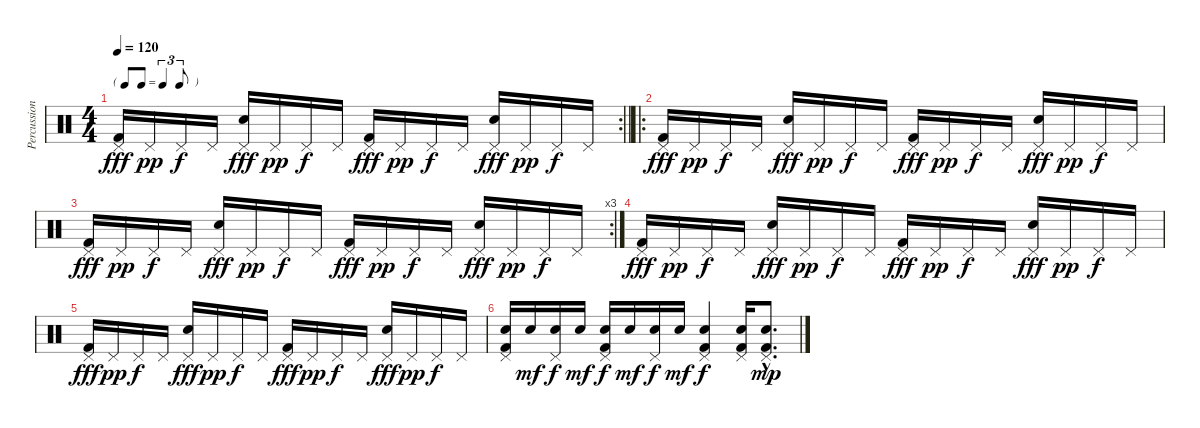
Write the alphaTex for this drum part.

\track ("Percussions" "Percussion") {instrument percussion}
\staff {score}
\articulation defaults
\rc 2
\ts (4 4)
\tf triplet8th
\tempo 120
\clef neutral
\barLineRight lightlight
\ks c
("Pedal Hi-Hat (hit)" "Kick (hit) 2").16{dy fff} "Pedal Hi-Hat (hit)".16{dy pp} "Pedal Hi-Hat (hit)".16{dy f} "Pedal Hi-Hat (hit)".16 ("Pedal Hi-Hat (hit)" "Hand Clap (hit)").16{dy fff} "Pedal Hi-Hat (hit)".16{dy pp} "Pedal Hi-Hat (hit)".16{dy f} "Pedal Hi-Hat (hit)".16 ("Pedal Hi-Hat (hit)" "Kick (hit) 2").16{dy fff} "Pedal Hi-Hat (hit)".16{dy pp} "Pedal Hi-Hat (hit)".16{dy f} "Pedal Hi-Hat (hit)".16 ("Pedal Hi-Hat (hit)" "Hand Clap (hit)").16{dy fff} "Pedal Hi-Hat (hit)".16{dy pp} "Pedal Hi-Hat (hit)".16{dy f} "Pedal Hi-Hat (hit)".16 |
\ro
("Pedal Hi-Hat (hit)" "Kick (hit) 2").16{dy fff} "Pedal Hi-Hat (hit)".16{dy pp} "Pedal Hi-Hat (hit)".16{dy f} "Pedal Hi-Hat (hit)".16 ("Pedal Hi-Hat (hit)" "Hand Clap (hit)").16{dy fff} "Pedal Hi-Hat (hit)".16{dy pp} "Pedal Hi-Hat (hit)".16{dy f} "Pedal Hi-Hat (hit)".16 ("Pedal Hi-Hat (hit)" "Kick (hit) 2").16{dy fff} "Pedal Hi-Hat (hit)".16{dy pp} "Pedal Hi-Hat (hit)".16{dy f} "Pedal Hi-Hat (hit)".16 ("Pedal Hi-Hat (hit)" "Hand Clap (hit)").16{dy fff} "Pedal Hi-Hat (hit)".16{dy pp} "Pedal Hi-Hat (hit)".16{dy f} "Pedal Hi-Hat (hit)".16 |
\rc 3
("Pedal Hi-Hat (hit)" "Kick (hit) 2").16{dy fff} "Pedal Hi-Hat (hit)".16{dy pp} "Pedal Hi-Hat (hit)".16{dy f} "Pedal Hi-Hat (hit)".16 ("Pedal Hi-Hat (hit)" "Hand Clap (hit)").16{dy fff} "Pedal Hi-Hat (hit)".16{dy pp} "Pedal Hi-Hat (hit)".16{dy f} "Pedal Hi-Hat (hit)".16 ("Pedal Hi-Hat (hit)" "Kick (hit) 2").16{dy fff} "Pedal Hi-Hat (hit)".16{dy pp} "Pedal Hi-Hat (hit)".16{dy f} "Pedal Hi-Hat (hit)".16 ("Pedal Hi-Hat (hit)" "Hand Clap (hit)").16{dy fff} "Pedal Hi-Hat (hit)".16{dy pp} "Pedal Hi-Hat (hit)".16{dy f} "Pedal Hi-Hat (hit)".16 |
("Pedal Hi-Hat (hit)" "Kick (hit) 2").16{dy fff} "Pedal Hi-Hat (hit)".16{dy pp} "Pedal Hi-Hat (hit)".16{dy f} "Pedal Hi-Hat (hit)".16 ("Pedal Hi-Hat (hit)" "Hand Clap (hit)").16{dy fff} "Pedal Hi-Hat (hit)".16{dy pp} "Pedal Hi-Hat (hit)".16{dy f} "Pedal Hi-Hat (hit)".16 ("Pedal Hi-Hat (hit)" "Kick (hit) 2").16{dy fff} "Pedal Hi-Hat (hit)".16{dy pp} "Pedal Hi-Hat (hit)".16{dy f} "Pedal Hi-Hat (hit)".16 ("Pedal Hi-Hat (hit)" "Hand Clap (hit)").16{dy fff} "Pedal Hi-Hat (hit)".16{dy pp} "Pedal Hi-Hat (hit)".16{dy f} "Pedal Hi-Hat (hit)".16 |
("Pedal Hi-Hat (hit)" "Kick (hit) 2").16{dy fff} "Pedal Hi-Hat (hit)".16{dy pp} "Pedal Hi-Hat (hit)".16{dy f} "Pedal Hi-Hat (hit)".16 ("Pedal Hi-Hat (hit)" "Hand Clap (hit)").16{dy fff} "Pedal Hi-Hat (hit)".16{dy pp} "Pedal Hi-Hat (hit)".16{dy f} "Pedal Hi-Hat (hit)".16 ("Pedal Hi-Hat (hit)" "Kick (hit) 2").16{dy fff} "Pedal Hi-Hat (hit)".16{dy pp} "Pedal Hi-Hat (hit)".16{dy f} "Pedal Hi-Hat (hit)".16 ("Pedal Hi-Hat (hit)" "Hand Clap (hit)").16{dy fff} "Pedal Hi-Hat (hit)".16{dy pp} "Pedal Hi-Hat (hit)".16{dy f} "Pedal Hi-Hat (hit)".16 |
("Snare (hit) 2" "Pedal Hi-Hat (hit)" "Kick (hit) 2").16 "Snare (hit) 2".16{dy mf} ("Snare (hit) 2" "Pedal Hi-Hat (hit)").16{dy f} "Snare (hit) 2".16{dy mf} ("Snare (hit) 2" "Pedal Hi-Hat (hit)" "Kick (hit) 2").16{dy f} "Snare (hit) 2".16{dy mf} ("Snare (hit) 2" "Pedal Hi-Hat (hit)").16{dy f} "Snare (hit) 2".16{dy mf} ("Snare (hit) 2" "Pedal Hi-Hat (hit)" "Kick (hit) 2").4{dy f} ("Snare (hit) 2" "Pedal Hi-Hat (hit)" "Kick (hit) 2").16 ("Snare (hit) 2"{hac} "Pedal Hi-Hat (hit)"{hac} "Kick (hit) 2"{hac}).8{d dy mp}
